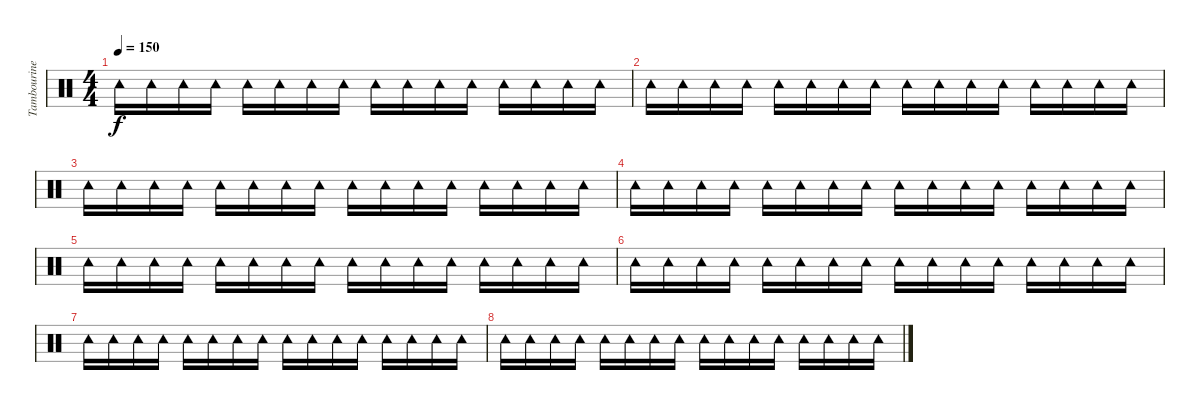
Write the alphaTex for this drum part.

\track ("Tambourine" "Tambourine") {instrument percussion}
\staff {score}
\articulation defaults
\ts (4 4)
\tempo 150
\clef neutral
\ks c "Tambourine (hit)".16{dy f} "Tambourine (hit)".16 "Tambourine (hit)".16 "Tambourine (hit)".16 "Tambourine (hit)".16 "Tambourine (hit)".16 "Tambourine (hit)".16 "Tambourine (hit)".16 "Tambourine (hit)".16 "Tambourine (hit)".16 "Tambourine (hit)".16 "Tambourine (hit)".16 "Tambourine (hit)".16 "Tambourine (hit)".16 "Tambourine (hit)".16 "Tambourine (hit)".16
|
"Tambourine (hit)".16 "Tambourine (hit)".16 "Tambourine (hit)".16 "Tambourine (hit)".16 "Tambourine (hit)".16 "Tambourine (hit)".16 "Tambourine (hit)".16 "Tambourine (hit)".16 "Tambourine (hit)".16 "Tambourine (hit)".16 "Tambourine (hit)".16 "Tambourine (hit)".16 "Tambourine (hit)".16 "Tambourine (hit)".16 "Tambourine (hit)".16 "Tambourine (hit)".16 |
"Tambourine (hit)".16 "Tambourine (hit)".16 "Tambourine (hit)".16 "Tambourine (hit)".16 "Tambourine (hit)".16 "Tambourine (hit)".16 "Tambourine (hit)".16 "Tambourine (hit)".16 "Tambourine (hit)".16 "Tambourine (hit)".16 "Tambourine (hit)".16 "Tambourine (hit)".16 "Tambourine (hit)".16 "Tambourine (hit)".16 "Tambourine (hit)".16 "Tambourine (hit)".16 |
"Tambourine (hit)".16 "Tambourine (hit)".16 "Tambourine (hit)".16 "Tambourine (hit)".16 "Tambourine (hit)".16 "Tambourine (hit)".16 "Tambourine (hit)".16 "Tambourine (hit)".16 "Tambourine (hit)".16 "Tambourine (hit)".16 "Tambourine (hit)".16 "Tambourine (hit)".16 "Tambourine (hit)".16 "Tambourine (hit)".16 "Tambourine (hit)".16 "Tambourine (hit)".16 |
"Tambourine (hit)".16 "Tambourine (hit)".16 "Tambourine (hit)".16 "Tambourine (hit)".16 "Tambourine (hit)".16 "Tambourine (hit)".16 "Tambourine (hit)".16 "Tambourine (hit)".16 "Tambourine (hit)".16 "Tambourine (hit)".16 "Tambourine (hit)".16 "Tambourine (hit)".16 "Tambourine (hit)".16 "Tambourine (hit)".16 "Tambourine (hit)".16 "Tambourine (hit)".16 |
"Tambourine (hit)".16 "Tambourine (hit)".16 "Tambourine (hit)".16 "Tambourine (hit)".16 "Tambourine (hit)".16 "Tambourine (hit)".16 "Tambourine (hit)".16 "Tambourine (hit)".16 "Tambourine (hit)".16 "Tambourine (hit)".16 "Tambourine (hit)".16 "Tambourine (hit)".16 "Tambourine (hit)".16 "Tambourine (hit)".16 "Tambourine (hit)".16 "Tambourine (hit)".16 |
"Tambourine (hit)".16 "Tambourine (hit)".16 "Tambourine (hit)".16 "Tambourine (hit)".16 "Tambourine (hit)".16 "Tambourine (hit)".16 "Tambourine (hit)".16 "Tambourine (hit)".16 "Tambourine (hit)".16 "Tambourine (hit)".16 "Tambourine (hit)".16 "Tambourine (hit)".16 "Tambourine (hit)".16 "Tambourine (hit)".16 "Tambourine (hit)".16 "Tambourine (hit)".16 |
"Tambourine (hit)".16 "Tambourine (hit)".16 "Tambourine (hit)".16 "Tambourine (hit)".16 "Tambourine (hit)".16 "Tambourine (hit)".16 "Tambourine (hit)".16 "Tambourine (hit)".16 "Tambourine (hit)".16 "Tambourine (hit)".16 "Tambourine (hit)".16 "Tambourine (hit)".16 "Tambourine (hit)".16 "Tambourine (hit)".16 "Tambourine (hit)".16 "Tambourine (hit)".16
